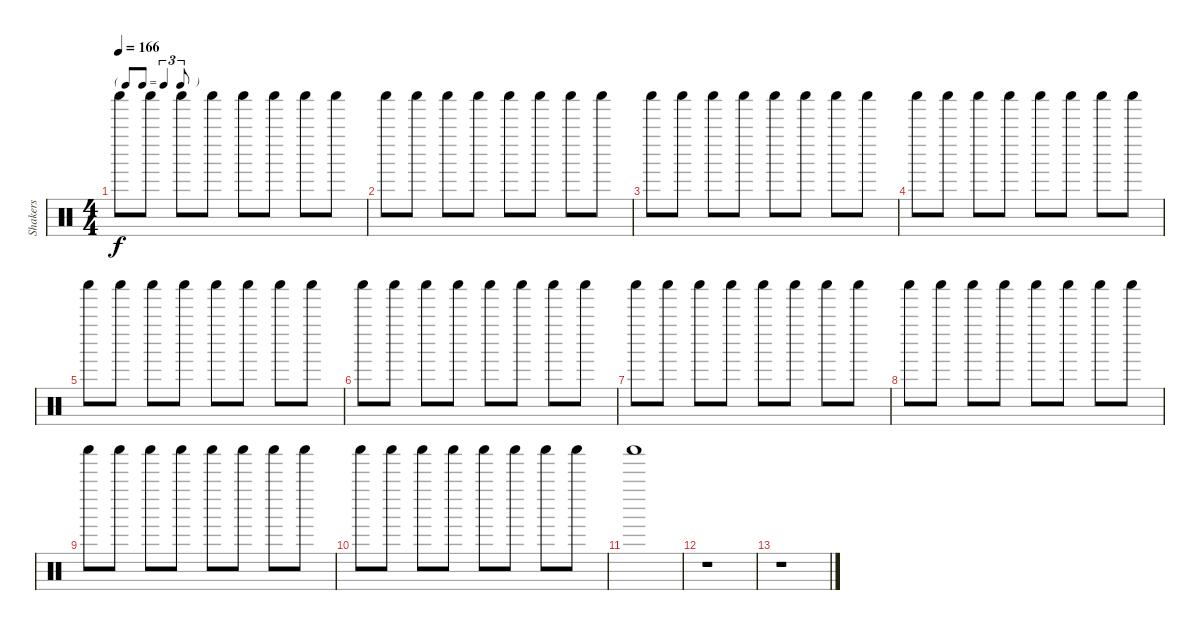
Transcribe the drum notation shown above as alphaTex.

\track ("Shakers" "Shakers") {instrument percussion}
\staff {score}
\articulation defaults
\ts (4 4)
\tf triplet8th
\tempo 166
\clef neutral
\ks c "Shaker (hit)".8{dy f} "Shaker (hit)".8 "Shaker (hit)".8 "Shaker (hit)".8 "Shaker (hit)".8 "Shaker (hit)".8 "Shaker (hit)".8 "Shaker (hit)".8
|
"Shaker (hit)".8 "Shaker (hit)".8 "Shaker (hit)".8 "Shaker (hit)".8 "Shaker (hit)".8 "Shaker (hit)".8 "Shaker (hit)".8 "Shaker (hit)".8 |
"Shaker (hit)".8 "Shaker (hit)".8 "Shaker (hit)".8 "Shaker (hit)".8 "Shaker (hit)".8 "Shaker (hit)".8 "Shaker (hit)".8 "Shaker (hit)".8 |
"Shaker (hit)".8 "Shaker (hit)".8 "Shaker (hit)".8 "Shaker (hit)".8 "Shaker (hit)".8 "Shaker (hit)".8 "Shaker (hit)".8 "Shaker (hit)".8 |
"Shaker (hit)".8 "Shaker (hit)".8 "Shaker (hit)".8 "Shaker (hit)".8 "Shaker (hit)".8 "Shaker (hit)".8 "Shaker (hit)".8 "Shaker (hit)".8 |
"Shaker (hit)".8 "Shaker (hit)".8 "Shaker (hit)".8 "Shaker (hit)".8 "Shaker (hit)".8 "Shaker (hit)".8 "Shaker (hit)".8 "Shaker (hit)".8 |
"Shaker (hit)".8 "Shaker (hit)".8 "Shaker (hit)".8 "Shaker (hit)".8 "Shaker (hit)".8 "Shaker (hit)".8 "Shaker (hit)".8 "Shaker (hit)".8 |
"Shaker (hit)".8 "Shaker (hit)".8 "Shaker (hit)".8 "Shaker (hit)".8 "Shaker (hit)".8 "Shaker (hit)".8 "Shaker (hit)".8 "Shaker (hit)".8 |
"Shaker (hit)".8 "Shaker (hit)".8 "Shaker (hit)".8 "Shaker (hit)".8 "Shaker (hit)".8 "Shaker (hit)".8 "Shaker (hit)".8 "Shaker (hit)".8 |
"Shaker (hit)".8 "Shaker (hit)".8 "Shaker (hit)".8 "Shaker (hit)".8 "Shaker (hit)".8 "Shaker (hit)".8 "Shaker (hit)".8 "Shaker (hit)".8 |
"Shaker (hit)".1 |
r.1 |
r.1
